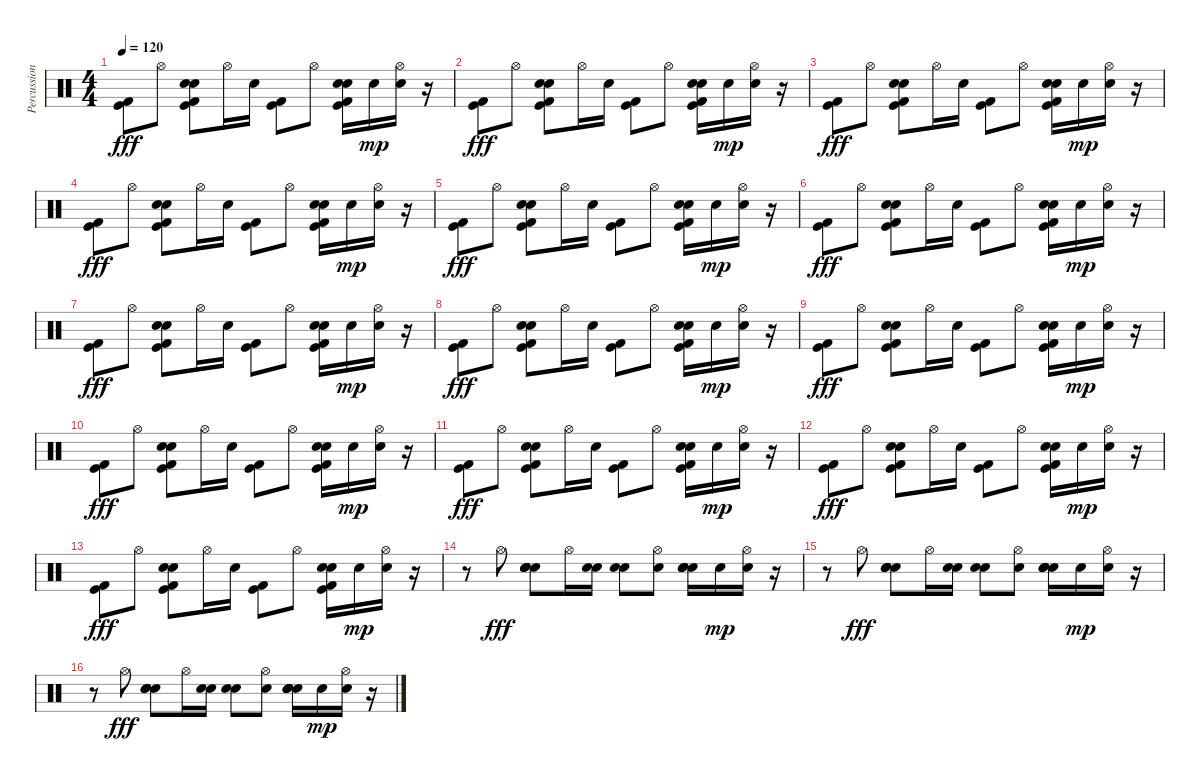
\track ("Percussion" "Percussion") {instrument percussion}
\staff {score}
\articulation defaults
\ts (4 4)
\tempo 120
\clef neutral
\ks c
("Kick (hit) 2" "Kick (hit)").8{dy fff} "Hi-Hat (open)".8 ("Kick (hit) 2" "Kick (hit)" "Hand Clap (hit)" "Electric Snare (hit)").8 "Hi-Hat (open)".16 "Electric Snare (hit)".16 ("Kick (hit) 2" "Kick (hit)").8 "Hi-Hat (open)".8 ("Kick (hit) 2" "Kick (hit)" "Hand Clap (hit)" "Electric Snare (hit)").16 "Electric Snare (hit)".16{dy mp} ("Hi-Hat (open)" "Electric Snare (hit)").16 r.16 |
("Kick (hit) 2" "Kick (hit)").8{dy fff} "Hi-Hat (open)".8 ("Kick (hit) 2" "Kick (hit)" "Hand Clap (hit)" "Electric Snare (hit)").8 "Hi-Hat (open)".16 "Electric Snare (hit)".16 ("Kick (hit) 2" "Kick (hit)").8 "Hi-Hat (open)".8 ("Kick (hit) 2" "Kick (hit)" "Hand Clap (hit)" "Electric Snare (hit)").16 "Electric Snare (hit)".16{dy mp} ("Hi-Hat (open)" "Electric Snare (hit)").16 r.16 |
("Kick (hit) 2" "Kick (hit)").8{dy fff} "Hi-Hat (open)".8 ("Kick (hit) 2" "Kick (hit)" "Hand Clap (hit)" "Electric Snare (hit)").8 "Hi-Hat (open)".16 "Electric Snare (hit)".16 ("Kick (hit) 2" "Kick (hit)").8 "Hi-Hat (open)".8 ("Kick (hit) 2" "Kick (hit)" "Hand Clap (hit)" "Electric Snare (hit)").16 "Electric Snare (hit)".16{dy mp} ("Hi-Hat (open)" "Electric Snare (hit)").16 r.16 |
("Kick (hit) 2" "Kick (hit)").8{dy fff} "Hi-Hat (open)".8 ("Kick (hit) 2" "Kick (hit)" "Hand Clap (hit)" "Electric Snare (hit)").8 "Hi-Hat (open)".16 "Electric Snare (hit)".16 ("Kick (hit) 2" "Kick (hit)").8 "Hi-Hat (open)".8 ("Kick (hit) 2" "Kick (hit)" "Hand Clap (hit)" "Electric Snare (hit)").16 "Electric Snare (hit)".16{dy mp} ("Hi-Hat (open)" "Electric Snare (hit)").16 r.16 |
("Kick (hit) 2" "Kick (hit)").8{dy fff} "Hi-Hat (open)".8 ("Kick (hit) 2" "Kick (hit)" "Hand Clap (hit)" "Electric Snare (hit)").8 "Hi-Hat (open)".16 "Electric Snare (hit)".16 ("Kick (hit) 2" "Kick (hit)").8 "Hi-Hat (open)".8 ("Kick (hit) 2" "Kick (hit)" "Hand Clap (hit)" "Electric Snare (hit)").16 "Electric Snare (hit)".16{dy mp} ("Hi-Hat (open)" "Electric Snare (hit)").16 r.16 |
("Kick (hit) 2" "Kick (hit)").8{dy fff} "Hi-Hat (open)".8 ("Kick (hit) 2" "Kick (hit)" "Hand Clap (hit)" "Electric Snare (hit)").8 "Hi-Hat (open)".16 "Electric Snare (hit)".16 ("Kick (hit) 2" "Kick (hit)").8 "Hi-Hat (open)".8 ("Kick (hit) 2" "Kick (hit)" "Hand Clap (hit)" "Electric Snare (hit)").16 "Electric Snare (hit)".16{dy mp} ("Hi-Hat (open)" "Electric Snare (hit)").16 r.16 |
("Kick (hit) 2" "Kick (hit)").8{dy fff} "Hi-Hat (open)".8 ("Kick (hit) 2" "Kick (hit)" "Hand Clap (hit)" "Electric Snare (hit)").8 "Hi-Hat (open)".16 "Electric Snare (hit)".16 ("Kick (hit) 2" "Kick (hit)").8 "Hi-Hat (open)".8 ("Kick (hit) 2" "Kick (hit)" "Hand Clap (hit)" "Electric Snare (hit)").16 "Electric Snare (hit)".16{dy mp} ("Hi-Hat (open)" "Electric Snare (hit)").16 r.16 |
("Kick (hit) 2" "Kick (hit)").8{dy fff} "Hi-Hat (open)".8 ("Kick (hit) 2" "Kick (hit)" "Hand Clap (hit)" "Electric Snare (hit)").8 "Hi-Hat (open)".16 "Electric Snare (hit)".16 ("Kick (hit) 2" "Kick (hit)").8 "Hi-Hat (open)".8 ("Kick (hit) 2" "Kick (hit)" "Hand Clap (hit)" "Electric Snare (hit)").16 "Electric Snare (hit)".16{dy mp} ("Hi-Hat (open)" "Electric Snare (hit)").16 r.16 |
("Kick (hit) 2" "Kick (hit)").8{dy fff} "Hi-Hat (open)".8 ("Kick (hit) 2" "Kick (hit)" "Hand Clap (hit)" "Electric Snare (hit)").8 "Hi-Hat (open)".16 "Electric Snare (hit)".16 ("Kick (hit) 2" "Kick (hit)").8 "Hi-Hat (open)".8 ("Kick (hit) 2" "Kick (hit)" "Hand Clap (hit)" "Electric Snare (hit)").16 "Electric Snare (hit)".16{dy mp} ("Hi-Hat (open)" "Electric Snare (hit)").16 r.16 |
("Kick (hit) 2" "Kick (hit)").8{dy fff} "Hi-Hat (open)".8 ("Kick (hit) 2" "Kick (hit)" "Hand Clap (hit)" "Electric Snare (hit)").8 "Hi-Hat (open)".16 "Electric Snare (hit)".16 ("Kick (hit) 2" "Kick (hit)").8 "Hi-Hat (open)".8 ("Kick (hit) 2" "Kick (hit)" "Hand Clap (hit)" "Electric Snare (hit)").16 "Electric Snare (hit)".16{dy mp} ("Hi-Hat (open)" "Electric Snare (hit)").16 r.16 |
("Kick (hit) 2" "Kick (hit)").8{dy fff} "Hi-Hat (open)".8 ("Kick (hit) 2" "Kick (hit)" "Hand Clap (hit)" "Electric Snare (hit)").8 "Hi-Hat (open)".16 "Electric Snare (hit)".16 ("Kick (hit) 2" "Kick (hit)").8 "Hi-Hat (open)".8 ("Kick (hit) 2" "Kick (hit)" "Hand Clap (hit)" "Electric Snare (hit)").16 "Electric Snare (hit)".16{dy mp} ("Hi-Hat (open)" "Electric Snare (hit)").16 r.16 |
("Kick (hit) 2" "Kick (hit)").8{dy fff} "Hi-Hat (open)".8 ("Kick (hit) 2" "Kick (hit)" "Hand Clap (hit)" "Electric Snare (hit)").8 "Hi-Hat (open)".16 "Electric Snare (hit)".16 ("Kick (hit) 2" "Kick (hit)").8 "Hi-Hat (open)".8 ("Kick (hit) 2" "Kick (hit)" "Hand Clap (hit)" "Electric Snare (hit)").16 "Electric Snare (hit)".16{dy mp} ("Hi-Hat (open)" "Electric Snare (hit)").16 r.16 |
("Kick (hit) 2" "Kick (hit)").8{dy fff} "Hi-Hat (open)".8 ("Kick (hit) 2" "Kick (hit)" "Hand Clap (hit)" "Electric Snare (hit)").8 "Hi-Hat (open)".16 "Electric Snare (hit)".16 ("Kick (hit) 2" "Kick (hit)").8 "Hi-Hat (open)".8 ("Kick (hit) 2" "Kick (hit)" "Hand Clap (hit)" "Electric Snare (hit)").16 "Electric Snare (hit)".16{dy mp} ("Hi-Hat (open)" "Electric Snare (hit)").16 r.16 |
r.8 "Hi-Hat (open)".8{dy fff} ("Snare (hit)" "Snare (hit)" "Hand Clap (hit)" "Electric Snare (hit)").8 "Hi-Hat (open)".16 ("Snare (hit)" "Electric Snare (hit)").16 ("Snare (hit)" "Snare (hit)").8 ("Snare (hit)" "Hi-Hat (open)").8 ("Snare (hit)" "Snare (hit)" "Hand Clap (hit)" "Electric Snare (hit)").16 "Electric Snare (hit)".16{dy mp} ("Hi-Hat (open)" "Electric Snare (hit)").16 r.16 |
r.8 "Hi-Hat (open)".8{dy fff} ("Snare (hit)" "Snare (hit)" "Hand Clap (hit)" "Electric Snare (hit)").8 "Hi-Hat (open)".16 ("Snare (hit)" "Electric Snare (hit)").16 ("Snare (hit)" "Snare (hit)").8 ("Snare (hit)" "Hi-Hat (open)").8 ("Snare (hit)" "Snare (hit)" "Hand Clap (hit)" "Electric Snare (hit)").16 "Electric Snare (hit)".16{dy mp} ("Hi-Hat (open)" "Electric Snare (hit)").16 r.16 |
r.8 "Hi-Hat (open)".8{dy fff} ("Snare (hit)" "Snare (hit)" "Hand Clap (hit)" "Electric Snare (hit)").8 "Hi-Hat (open)".16 ("Snare (hit)" "Electric Snare (hit)").16 ("Snare (hit)" "Snare (hit)").8 ("Snare (hit)" "Hi-Hat (open)").8 ("Snare (hit)" "Snare (hit)" "Hand Clap (hit)" "Electric Snare (hit)").16 "Electric Snare (hit)".16{dy mp} ("Hi-Hat (open)" "Electric Snare (hit)").16 r.16
